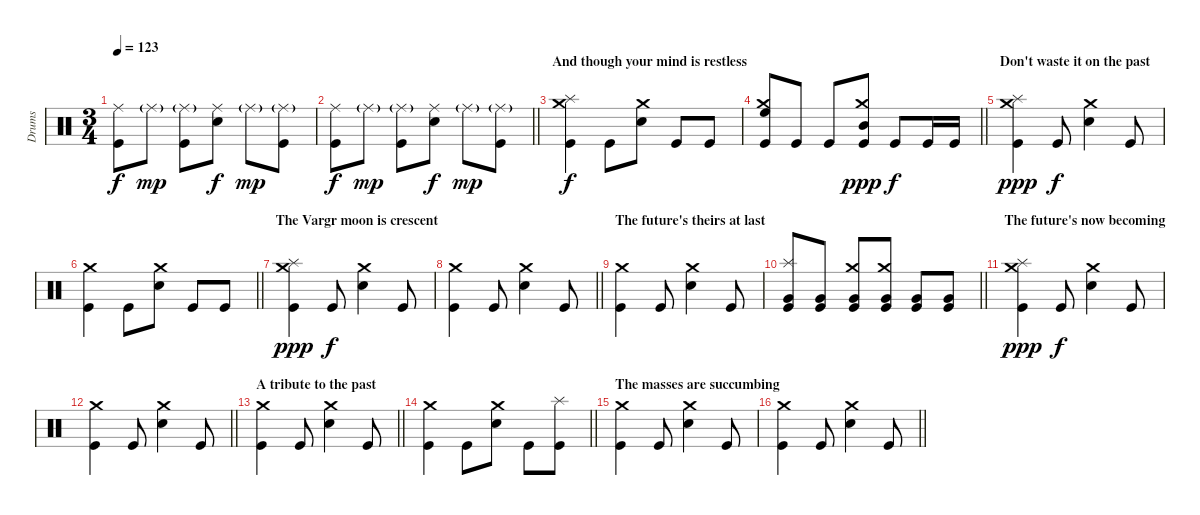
\track ("Drums" "Drums") {instrument percussion}
\staff {score}
\articulation defaults
\ts (3 4)
\tempo 123
\clef neutral
\ks c
("Ride (middle)" "Kick (hit)").8{dy f} "Ride (middle)"{g}.8{dy mp} ("Ride (middle)"{g} "Kick (hit)").8 ("Ride (middle)" "Snare (hit) 2").8{dy f} "Ride (middle)"{g}.8{dy mp} ("Ride (middle)"{g} "Kick (hit)").8 |
\barLineRight lightlight
("Ride (middle)" "Kick (hit)").8{dy f} "Ride (middle)"{g}.8{dy mp} ("Ride (middle)"{g} "Kick (hit)").8 ("Ride (middle)" "Snare (hit) 2").8{dy f} "Ride (middle)"{g}.8{dy mp} ("Ride (middle)"{g} "Kick (hit)").8 |
\section ("" "And though your mind is restless")
("Crash medium (hit)" "Splash (hit)" "Kick (hit)").4{dy f} "Kick (hit)".8 ("Crash medium (hit)" "Snare (hit) 2").8 "Kick (hit)".8 "Kick (hit)".8 |
\barLineRight lightlight
("Crash medium (hit)" "High Floor Tom (hit)" "Kick (hit)").8 "Kick (hit)".8 "Kick (hit)".8 ("Crash medium (hit)" "Mid Tom (hit)" "Kick (hit)").8{dy ppp} "Kick (hit)".8{dy f} "Kick (hit)".16 "Kick (hit)".16 |
\section ("" "Don't waste it on the past")
("Crash medium (hit)" "Splash (hit)" "Kick (hit)").4{dy ppp} "Kick (hit)".8{dy f} ("Crash medium (hit)" "Snare (hit) 2").4 "Kick (hit)".8 |
\barLineRight lightlight
("Crash medium (hit)" "Kick (hit)").4 "Kick (hit)".8 ("Crash medium (hit)" "Snare (hit) 2").8 "Kick (hit)".8 "Kick (hit)".8 |
\section ("" "The Vargr moon is crescent")
("Crash medium (hit)" "Splash (hit)" "Kick (hit)").4{dy ppp} "Kick (hit)".8{dy f} ("Crash medium (hit)" "Snare (hit) 2").4 "Kick (hit)".8 |
\barLineRight lightlight
("Crash medium (hit)" "Kick (hit)").4 "Kick (hit)".8 ("Crash medium (hit)" "Snare (hit) 2").4 "Kick (hit)".8 |
\section ("" "The future's theirs at last")
("Crash medium (hit)" "Kick (hit)").4 "Kick (hit)".8 ("Crash medium (hit)" "Snare (hit) 2").4 "Kick (hit)".8 |
\barLineRight lightlight
("Splash (hit)" "Very Low Tom (hit)" "Kick (hit)").8 ("Very Low Tom (hit)" "Kick (hit)").8 ("Crash medium (hit)" "Very Low Tom (hit)" "Kick (hit)").8 ("Crash medium (hit)" "Very Low Tom (hit)" "Kick (hit)").8 ("Very Low Tom (hit)" "Kick (hit)").8 ("Very Low Tom (hit)" "Kick (hit)").8 |
\section ("" "The future's now becoming")
("Crash medium (hit)" "Splash (hit)" "Kick (hit)").4{dy ppp} "Kick (hit)".8{dy f} ("Crash medium (hit)" "Snare (hit) 2").4 "Kick (hit)".8 |
\barLineRight lightlight
("Crash medium (hit)" "Kick (hit)").4 "Kick (hit)".8 ("Crash medium (hit)" "Snare (hit) 2").4 "Kick (hit)".8 |
\section ("" "A tribute to the past")
\barLineRight lightlight
("Crash medium (hit)" "Kick (hit)").4 "Kick (hit)".8 ("Crash medium (hit)" "Snare (hit) 2").4 "Kick (hit)".8 |
\barLineRight lightlight
("Crash medium (hit)" "Kick (hit)").4 "Kick (hit)".8 ("Crash medium (hit)" "Snare (hit) 2").8 "Kick (hit)".8 ("Splash (hit)" "Kick (hit)").8 |
\section ("" "The masses are succumbing")
("Crash medium (hit)" "Kick (hit)").4 "Kick (hit)".8 ("Crash medium (hit)" "Snare (hit) 2").4 "Kick (hit)".8 |
\barLineRight lightlight
("Crash medium (hit)" "Kick (hit)").4 "Kick (hit)".8 ("Crash medium (hit)" "Snare (hit) 2").4 "Kick (hit)".8
